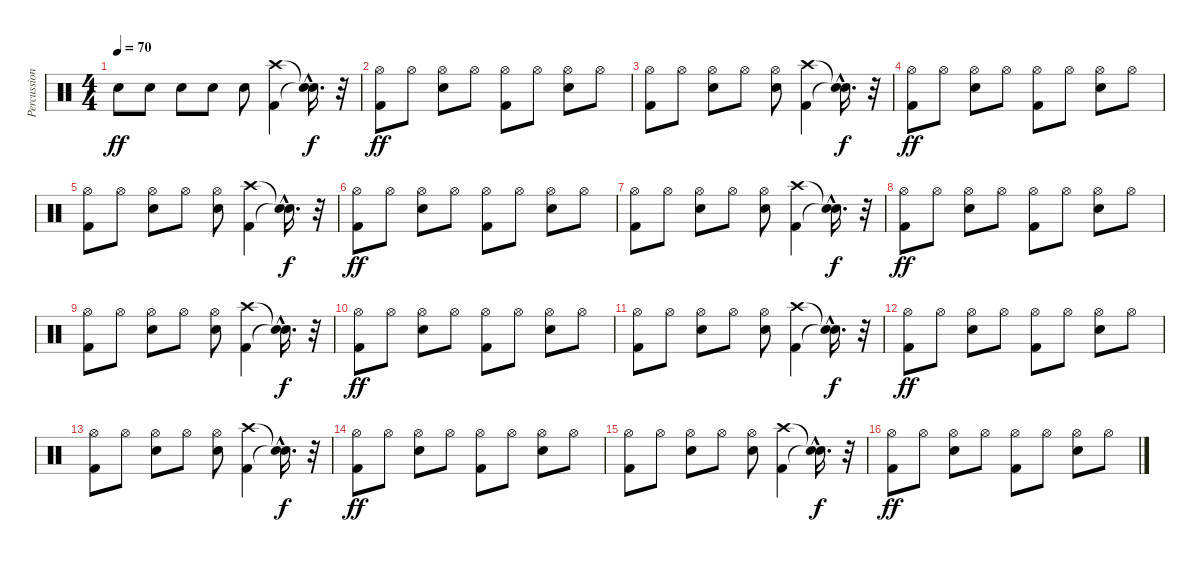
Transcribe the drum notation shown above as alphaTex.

\track ("Percussions" "Percussion") {instrument percussion}
\staff {score}
\articulation defaults
\ts (4 4)
\tempo 70
\clef neutral
\ks c "Snare (hit) 2".8{dy ff} "Snare (hit) 2".8 "Snare (hit) 2".8 "Snare (hit) 2".8 "Snare (hit) 2".8
("Kick (hit) 2" "Crash high (hit)").4 ("Snare (hit)"{hac t} "Snare (hit)"{hac t}).16{d dy f} r.32 |
("Kick (hit) 2" "Hi-Hat (open)").8{dy ff} "Hi-Hat (open)".8 ("Snare (hit) 2" "Hi-Hat (open)").8 "Hi-Hat (open)".8 ("Kick (hit) 2" "Hi-Hat (open)").8 "Hi-Hat (open)".8 ("Snare (hit) 2" "Hi-Hat (open)").8 "Hi-Hat (open)".8 |
("Kick (hit) 2" "Hi-Hat (open)").8 "Hi-Hat (open)".8 ("Snare (hit) 2" "Hi-Hat (open)").8 "Hi-Hat (open)".8 ("Snare (hit) 2" "Hi-Hat (open)").8 ("Kick (hit) 2" "Crash high (hit)").4 ("Snare (hit)"{hac t} "Snare (hit)"{hac t}).16{d dy f} r.32 |
("Kick (hit) 2" "Hi-Hat (open)").8{dy ff} "Hi-Hat (open)".8 ("Snare (hit) 2" "Hi-Hat (open)").8 "Hi-Hat (open)".8 ("Kick (hit) 2" "Hi-Hat (open)").8 "Hi-Hat (open)".8 ("Snare (hit) 2" "Hi-Hat (open)").8 "Hi-Hat (open)".8 |
("Kick (hit) 2" "Hi-Hat (open)").8 "Hi-Hat (open)".8 ("Snare (hit) 2" "Hi-Hat (open)").8 "Hi-Hat (open)".8 ("Snare (hit) 2" "Hi-Hat (open)").8 ("Kick (hit) 2" "Crash high (hit)").4 ("Snare (hit)"{hac t} "Snare (hit)"{hac t}).16{d dy f} r.32 |
("Kick (hit) 2" "Hi-Hat (open)").8{dy ff} "Hi-Hat (open)".8 ("Snare (hit) 2" "Hi-Hat (open)").8 "Hi-Hat (open)".8 ("Kick (hit) 2" "Hi-Hat (open)").8 "Hi-Hat (open)".8 ("Snare (hit) 2" "Hi-Hat (open)").8 "Hi-Hat (open)".8 |
("Kick (hit) 2" "Hi-Hat (open)").8 "Hi-Hat (open)".8 ("Snare (hit) 2" "Hi-Hat (open)").8 "Hi-Hat (open)".8 ("Snare (hit) 2" "Hi-Hat (open)").8 ("Kick (hit) 2" "Crash high (hit)").4 ("Snare (hit)"{hac t} "Snare (hit)"{hac t}).16{d dy f} r.32 |
("Kick (hit) 2" "Hi-Hat (open)").8{dy ff} "Hi-Hat (open)".8 ("Snare (hit) 2" "Hi-Hat (open)").8 "Hi-Hat (open)".8 ("Kick (hit) 2" "Hi-Hat (open)").8 "Hi-Hat (open)".8 ("Snare (hit) 2" "Hi-Hat (open)").8 "Hi-Hat (open)".8 |
("Kick (hit) 2" "Hi-Hat (open)").8 "Hi-Hat (open)".8 ("Snare (hit) 2" "Hi-Hat (open)").8 "Hi-Hat (open)".8 ("Snare (hit) 2" "Hi-Hat (open)").8 ("Kick (hit) 2" "Crash high (hit)").4 ("Snare (hit)"{hac t} "Snare (hit)"{hac t}).16{d dy f} r.32 |
("Kick (hit) 2" "Hi-Hat (open)").8{dy ff} "Hi-Hat (open)".8 ("Snare (hit) 2" "Hi-Hat (open)").8 "Hi-Hat (open)".8 ("Kick (hit) 2" "Hi-Hat (open)").8 "Hi-Hat (open)".8 ("Snare (hit) 2" "Hi-Hat (open)").8 "Hi-Hat (open)".8 |
("Kick (hit) 2" "Hi-Hat (open)").8 "Hi-Hat (open)".8 ("Snare (hit) 2" "Hi-Hat (open)").8 "Hi-Hat (open)".8 ("Snare (hit) 2" "Hi-Hat (open)").8 ("Kick (hit) 2" "Crash high (hit)").4 ("Snare (hit)"{hac t} "Snare (hit)"{hac t}).16{d dy f} r.32 |
("Kick (hit) 2" "Hi-Hat (open)").8{dy ff} "Hi-Hat (open)".8 ("Snare (hit) 2" "Hi-Hat (open)").8 "Hi-Hat (open)".8 ("Kick (hit) 2" "Hi-Hat (open)").8 "Hi-Hat (open)".8 ("Snare (hit) 2" "Hi-Hat (open)").8 "Hi-Hat (open)".8 |
("Kick (hit) 2" "Hi-Hat (open)").8 "Hi-Hat (open)".8 ("Snare (hit) 2" "Hi-Hat (open)").8 "Hi-Hat (open)".8 ("Snare (hit) 2" "Hi-Hat (open)").8 ("Kick (hit) 2" "Crash high (hit)").4 ("Snare (hit)"{hac t} "Snare (hit)"{hac t}).16{d dy f} r.32 |
("Kick (hit) 2" "Hi-Hat (open)").8{dy ff} "Hi-Hat (open)".8 ("Snare (hit) 2" "Hi-Hat (open)").8 "Hi-Hat (open)".8 ("Kick (hit) 2" "Hi-Hat (open)").8 "Hi-Hat (open)".8 ("Snare (hit) 2" "Hi-Hat (open)").8 "Hi-Hat (open)".8 |
("Kick (hit) 2" "Hi-Hat (open)").8 "Hi-Hat (open)".8 ("Snare (hit) 2" "Hi-Hat (open)").8 "Hi-Hat (open)".8 ("Snare (hit) 2" "Hi-Hat (open)").8 ("Kick (hit) 2" "Crash high (hit)").4 ("Snare (hit)"{hac t} "Snare (hit)"{hac t}).16{d dy f} r.32 |
("Kick (hit) 2" "Hi-Hat (open)").8{dy ff} "Hi-Hat (open)".8 ("Snare (hit) 2" "Hi-Hat (open)").8 "Hi-Hat (open)".8 ("Kick (hit) 2" "Hi-Hat (open)").8 "Hi-Hat (open)".8 ("Snare (hit) 2" "Hi-Hat (open)").8 "Hi-Hat (open)".8
